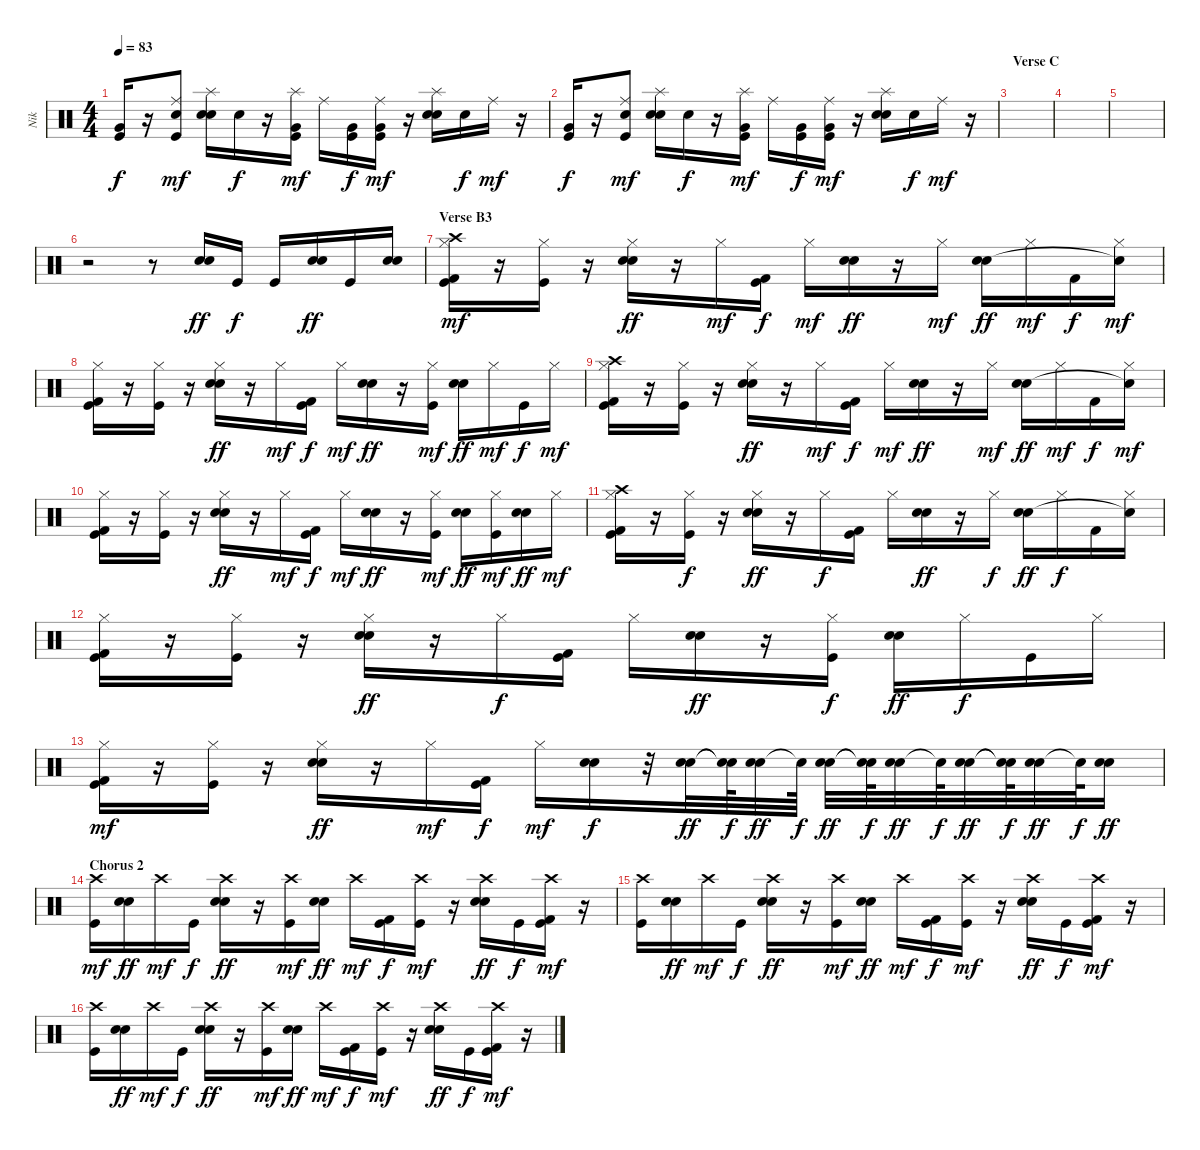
\track ("Nik" "Nik") {instrument percussion}
\staff {score}
\articulation defaults
\ts (4 4)
\tempo 83
\clef neutral
\ks c
("Kick (hit)" "Very Low Tom (hit)").16{dy f} r.16 ("Ride (middle)" "Kick (hit)" "Electric Snare (hit)").8{dy mf} ("Splash (hit)" "Electric Snare (hit)" "Electric Snare (hit)").16 "Electric Snare (hit)".16{dy f} r.16 ("Splash (hit)" "Kick (hit)" "Very Low Tom (hit)").16{dy mf} "Ride (middle)".16 ("Kick (hit)" "Very Low Tom (hit)").16{dy f} ("Ride (middle)" "Kick (hit)" "Very Low Tom (hit)").16{dy mf} r.16 ("Splash (hit)" "Electric Snare (hit)" "Electric Snare (hit)").16 "Electric Snare (hit)".16{dy f} "Ride (middle)".16{dy mf} r.16 |
("Kick (hit)" "Very Low Tom (hit)").16{dy f} r.16 ("Ride (middle)" "Kick (hit)" "Electric Snare (hit)").8{dy mf} ("Splash (hit)" "Electric Snare (hit)" "Electric Snare (hit)").16 "Electric Snare (hit)".16{dy f} r.16 ("Splash (hit)" "Kick (hit)" "Very Low Tom (hit)").16{dy mf} "Ride (middle)".16 ("Kick (hit)" "Very Low Tom (hit)").16{dy f} ("Ride (middle)" "Kick (hit)" "Very Low Tom (hit)").16{dy mf} r.16 ("Splash (hit)" "Electric Snare (hit)" "Electric Snare (hit)").16 "Electric Snare (hit)".16{dy f} "Ride (middle)".16{dy mf} r.16 |
\section ("" "Verse C")
|
|
|
r.2 r.8 ("Electric Snare (hit)" "Electric Snare (hit)").16{dy ff volume 16} "Kick (hit)".16{dy f} "Kick (hit)".16 ("Electric Snare (hit)" "Electric Snare (hit)").16{dy ff} "Kick (hit)".16 ("Electric Snare (hit)" "Electric Snare (hit)").16 |
\section ("" "Verse B3")
("Hi-Hat (closed)" "Crash high (hit)" "Kick (hit) 2" "Kick (hit)").16{dy mf} r.16 ("Hi-Hat (closed)" "Kick (hit)").16 r.16 ("Hi-Hat (closed)" "Electric Snare (hit)" "Electric Snare (hit)").16{dy ff} r.16 "Hi-Hat (closed)".16{dy mf} ("Kick (hit) 2" "Kick (hit)").16{dy f} "Hi-Hat (closed)".16{dy mf} ("Electric Snare (hit)" "Electric Snare (hit)").16{dy ff} r.16 "Hi-Hat (closed)".16{dy mf} ("Electric Snare (hit)" "Electric Snare (hit)").16{dy ff} "Hi-Hat (closed)".16{dy mf} "Kick (hit) 2".16{dy f} ("Hi-Hat (closed)" "Snare (hit)"{t}).16{dy mf} |
("Hi-Hat (closed)" "Kick (hit) 2" "Kick (hit)").16 r.16 ("Hi-Hat (closed)" "Kick (hit)").16 r.16 ("Hi-Hat (closed)" "Electric Snare (hit)" "Electric Snare (hit)").16{dy ff} r.16 "Hi-Hat (closed)".16{dy mf} ("Kick (hit) 2" "Kick (hit)").16{dy f} "Hi-Hat (closed)".16{dy mf} ("Electric Snare (hit)" "Electric Snare (hit)").16{dy ff} r.16 ("Hi-Hat (closed)" "Kick (hit)").16{dy mf} ("Electric Snare (hit)" "Electric Snare (hit)").16{dy ff} "Hi-Hat (closed)".16{dy mf} "Kick (hit)".16{dy f} "Hi-Hat (closed)".16{dy mf} |
("Hi-Hat (closed)" "Crash high (hit)" "Kick (hit) 2" "Kick (hit)").16 r.16 ("Hi-Hat (closed)" "Kick (hit)").16 r.16 ("Hi-Hat (closed)" "Electric Snare (hit)" "Electric Snare (hit)").16{dy ff} r.16 "Hi-Hat (closed)".16{dy mf} ("Kick (hit) 2" "Kick (hit)").16{dy f} "Hi-Hat (closed)".16{dy mf} ("Electric Snare (hit)" "Electric Snare (hit)").16{dy ff} r.16 "Hi-Hat (closed)".16{dy mf} ("Electric Snare (hit)" "Electric Snare (hit)").16{dy ff} "Hi-Hat (closed)".16{dy mf} "Kick (hit) 2".16{dy f} ("Hi-Hat (closed)" "Snare (hit)"{t}).16{dy mf} |
("Hi-Hat (closed)" "Kick (hit) 2" "Kick (hit)").16 r.16 ("Hi-Hat (closed)" "Kick (hit)").16 r.16 ("Hi-Hat (closed)" "Electric Snare (hit)" "Electric Snare (hit)").16{dy ff} r.16 "Hi-Hat (closed)".16{dy mf} ("Kick (hit) 2" "Kick (hit)").16{dy f} "Hi-Hat (closed)".16{dy mf} ("Electric Snare (hit)" "Electric Snare (hit)").16{dy ff} r.16 ("Hi-Hat (closed)" "Kick (hit)").16{dy mf} ("Electric Snare (hit)" "Electric Snare (hit)").16{dy ff} ("Hi-Hat (closed)" "Kick (hit)").16{dy mf} ("Electric Snare (hit)" "Electric Snare (hit)").16{dy ff} "Hi-Hat (closed)".16{dy mf} |
("Hi-Hat (closed)" "Crash high (hit)" "Kick (hit) 2" "Kick (hit)").16 r.16 ("Hi-Hat (closed)" "Kick (hit)").16{dy f} r.16 ("Hi-Hat (closed)" "Electric Snare (hit)" "Electric Snare (hit)").16{dy ff} r.16 "Hi-Hat (closed)".16{dy f} ("Kick (hit) 2" "Kick (hit)").16 "Hi-Hat (closed)".16 ("Electric Snare (hit)" "Electric Snare (hit)").16{dy ff} r.16 "Hi-Hat (closed)".16{dy f} ("Electric Snare (hit)" "Electric Snare (hit)").16{dy ff} "Hi-Hat (closed)".16{dy f} "Kick (hit) 2".16 ("Hi-Hat (closed)" "Snare (hit)"{t}).16 |
("Hi-Hat (closed)" "Kick (hit) 2" "Kick (hit)").16 r.16 ("Hi-Hat (closed)" "Kick (hit)").16 r.16 ("Hi-Hat (closed)" "Electric Snare (hit)" "Electric Snare (hit)").16{dy ff} r.16 "Hi-Hat (closed)".16{dy f} ("Kick (hit) 2" "Kick (hit)").16 "Hi-Hat (closed)".16 ("Electric Snare (hit)" "Electric Snare (hit)").16{dy ff} r.16 ("Hi-Hat (closed)" "Kick (hit)").16{dy f} ("Electric Snare (hit)" "Electric Snare (hit)").16{dy ff} "Hi-Hat (closed)".16{dy f} "Kick (hit)".16 "Hi-Hat (closed)".16 |
("Hi-Hat (closed)" "Kick (hit) 2" "Kick (hit)").16{dy mf} r.16 ("Hi-Hat (closed)" "Kick (hit)").16 r.16 ("Hi-Hat (closed)" "Electric Snare (hit)" "Electric Snare (hit)").16{dy ff} r.16 "Hi-Hat (closed)".16{dy mf} ("Kick (hit) 2" "Kick (hit)").16{dy f} "Hi-Hat (closed)".16{dy mf} ("Electric Snare (hit)" "Electric Snare (hit)").16{dy f} r.32 ("Electric Snare (hit)" "Electric Snare (hit)").32{dy ff} ("Electric Snare (hit)"{t} "Electric Snare (hit)"{t}).64{dy f} ("Electric Snare (hit)" "Electric Snare (hit)").32{dy ff} "Electric Snare (hit)"{t}.64{dy f} ("Electric Snare (hit)" "Electric Snare (hit)").32{dy ff} ("Electric Snare (hit)"{t} "Electric Snare (hit)"{t}).64{dy f} ("Electric Snare (hit)" "Electric Snare (hit)").32{dy ff} "Electric Snare (hit)"{t}.64{dy f} ("Electric Snare (hit)" "Electric Snare (hit)").32{dy ff} ("Electric Snare (hit)"{t} "Electric Snare (hit)"{t}).64{dy f} ("Electric Snare (hit)" "Electric Snare (hit)").32{dy ff} "Electric Snare (hit)"{t}.64{dy f} ("Electric Snare (hit)" "Electric Snare (hit)").16{dy ff} |
\section ("" "Chorus 2")
("Crash high (hit)" "Kick (hit)").16{dy mf} ("Electric Snare (hit)" "Electric Snare (hit)").16{dy ff} "Crash high (hit)".16{dy mf} "Kick (hit)".16{dy f} ("Crash high (hit)" "Electric Snare (hit)" "Electric Snare (hit)").16{dy ff} r.16 ("Crash high (hit)" "Kick (hit)").16{dy mf} ("Electric Snare (hit)" "Electric Snare (hit)").16{dy ff} "Crash high (hit)".16{dy mf} ("Kick (hit) 2" "Kick (hit)").16{dy f} ("Crash high (hit)" "Kick (hit)").16{dy mf} r.16 ("Crash high (hit)" "Electric Snare (hit)" "Electric Snare (hit)").16{dy ff} "Kick (hit)".16{dy f} ("Crash high (hit)" "Kick (hit) 2" "Kick (hit)").16{dy mf} r.16 |
("Crash high (hit)" "Kick (hit)").16 ("Electric Snare (hit)" "Electric Snare (hit)").16{dy ff} "Crash high (hit)".16{dy mf} "Kick (hit)".16{dy f} ("Crash high (hit)" "Electric Snare (hit)" "Electric Snare (hit)").16{dy ff} r.16 ("Crash high (hit)" "Kick (hit)").16{dy mf} ("Electric Snare (hit)" "Electric Snare (hit)").16{dy ff} "Crash high (hit)".16{dy mf} ("Kick (hit) 2" "Kick (hit)").16{dy f} ("Crash high (hit)" "Kick (hit)").16{dy mf} r.16 ("Crash high (hit)" "Electric Snare (hit)" "Electric Snare (hit)").16{dy ff} "Kick (hit)".16{dy f} ("Crash high (hit)" "Kick (hit) 2" "Kick (hit)").16{dy mf} r.16 |
("Crash high (hit)" "Kick (hit)").16 ("Electric Snare (hit)" "Electric Snare (hit)").16{dy ff} "Crash high (hit)".16{dy mf} "Kick (hit)".16{dy f} ("Crash high (hit)" "Electric Snare (hit)" "Electric Snare (hit)").16{dy ff} r.16 ("Crash high (hit)" "Kick (hit)").16{dy mf} ("Electric Snare (hit)" "Electric Snare (hit)").16{dy ff} "Crash high (hit)".16{dy mf} ("Kick (hit) 2" "Kick (hit)").16{dy f} ("Crash high (hit)" "Kick (hit)").16{dy mf} r.16 ("Crash high (hit)" "Electric Snare (hit)" "Electric Snare (hit)").16{dy ff} "Kick (hit)".16{dy f} ("Crash high (hit)" "Kick (hit) 2" "Kick (hit)").16{dy mf} r.16
